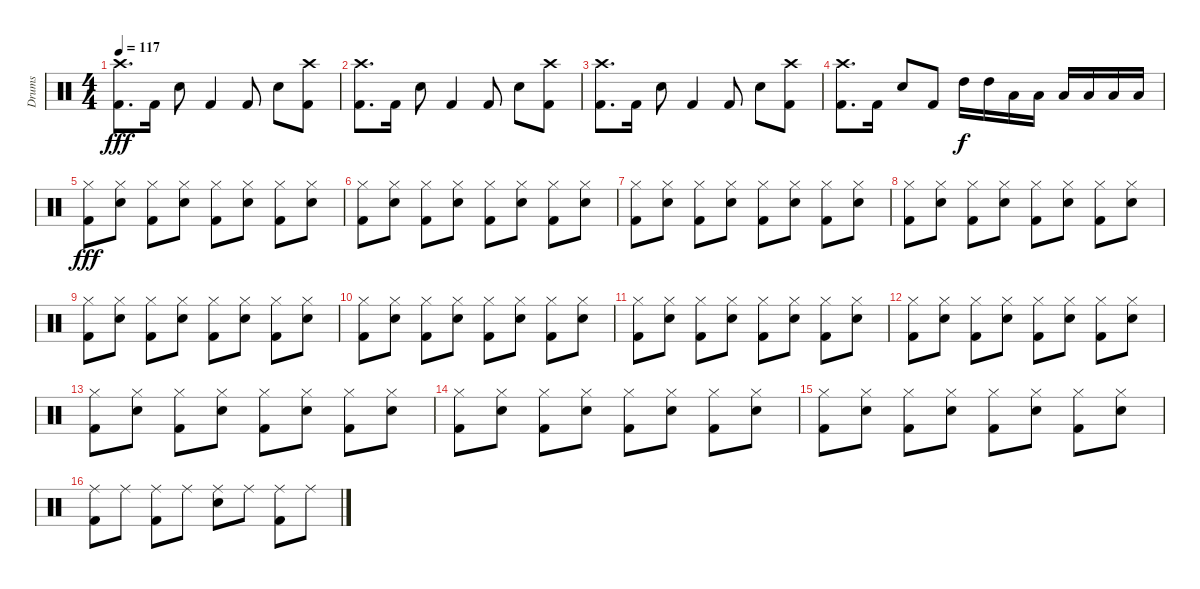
\track ("Drums" "Drums") {instrument percussion}
\staff {score}
\articulation defaults
\ts (4 4)
\tempo 117
\clef neutral
\ks c
("Crash high (hit)" "Kick (hit) 2").8{d dy fff} "Kick (hit) 2".16 "Snare (hit) 2".8 "Kick (hit) 2".4 "Kick (hit) 2".8 "Snare (hit) 2".8 ("Crash high (hit)" "Kick (hit) 2").8 |
("Crash high (hit)" "Kick (hit) 2").8{d} "Kick (hit) 2".16 "Snare (hit) 2".8 "Kick (hit) 2".4 "Kick (hit) 2".8 "Snare (hit) 2".8 ("Crash high (hit)" "Kick (hit) 2").8 |
("Crash high (hit)" "Kick (hit) 2").8{d} "Kick (hit) 2".16 "Snare (hit) 2".8 "Kick (hit) 2".4 "Kick (hit) 2".8 "Snare (hit) 2".8 ("Crash high (hit)" "Kick (hit) 2").8 |
("Crash high (hit)" "Kick (hit) 2").8{d} "Kick (hit) 2".16 "Snare (hit) 2".8 "Kick (hit) 2".8 "High Tom (hit)".16{dy f} "High Tom (hit)".16 "Low Tom (hit)".16 "Low Tom (hit)".16 "Low Floor Tom (hit)".16 "Low Floor Tom (hit)".16 "Low Floor Tom (hit)".16 "Low Floor Tom (hit)".16 |
("Hi-Hat (closed)" "Kick (hit) 2").8{dy fff} ("Hi-Hat (closed)" "Snare (hit) 2").8 ("Hi-Hat (closed)" "Kick (hit) 2").8 ("Hi-Hat (closed)" "Snare (hit) 2").8 ("Hi-Hat (closed)" "Kick (hit) 2").8 ("Hi-Hat (closed)" "Snare (hit) 2").8 ("Hi-Hat (closed)" "Kick (hit) 2").8 ("Hi-Hat (closed)" "Snare (hit) 2").8 |
("Hi-Hat (closed)" "Kick (hit) 2").8 ("Hi-Hat (closed)" "Snare (hit) 2").8 ("Hi-Hat (closed)" "Kick (hit) 2").8 ("Hi-Hat (closed)" "Snare (hit) 2").8 ("Hi-Hat (closed)" "Kick (hit) 2").8 ("Hi-Hat (closed)" "Snare (hit) 2").8 ("Hi-Hat (closed)" "Kick (hit) 2").8 ("Hi-Hat (closed)" "Snare (hit) 2").8 |
("Hi-Hat (closed)" "Kick (hit) 2").8 ("Hi-Hat (closed)" "Snare (hit) 2").8 ("Hi-Hat (closed)" "Kick (hit) 2").8 ("Hi-Hat (closed)" "Snare (hit) 2").8 ("Hi-Hat (closed)" "Kick (hit) 2").8 ("Hi-Hat (closed)" "Snare (hit) 2").8 ("Hi-Hat (closed)" "Kick (hit) 2").8 ("Hi-Hat (closed)" "Snare (hit) 2").8 |
("Hi-Hat (closed)" "Kick (hit) 2").8 ("Hi-Hat (closed)" "Snare (hit) 2").8 ("Hi-Hat (closed)" "Kick (hit) 2").8 ("Hi-Hat (closed)" "Snare (hit) 2").8 ("Hi-Hat (closed)" "Kick (hit) 2").8 ("Hi-Hat (closed)" "Snare (hit) 2").8 ("Hi-Hat (closed)" "Kick (hit) 2").8 ("Hi-Hat (closed)" "Snare (hit) 2").8 |
("Hi-Hat (closed)" "Kick (hit) 2").8 ("Hi-Hat (closed)" "Snare (hit) 2").8 ("Hi-Hat (closed)" "Kick (hit) 2").8 ("Hi-Hat (closed)" "Snare (hit) 2").8 ("Hi-Hat (closed)" "Kick (hit) 2").8 ("Hi-Hat (closed)" "Snare (hit) 2").8 ("Hi-Hat (closed)" "Kick (hit) 2").8 ("Hi-Hat (closed)" "Snare (hit) 2").8 |
("Hi-Hat (closed)" "Kick (hit) 2").8 ("Hi-Hat (closed)" "Snare (hit) 2").8 ("Hi-Hat (closed)" "Kick (hit) 2").8 ("Hi-Hat (closed)" "Snare (hit) 2").8 ("Hi-Hat (closed)" "Kick (hit) 2").8 ("Hi-Hat (closed)" "Snare (hit) 2").8 ("Hi-Hat (closed)" "Kick (hit) 2").8 ("Hi-Hat (closed)" "Snare (hit) 2").8 |
("Hi-Hat (closed)" "Kick (hit) 2").8 ("Hi-Hat (closed)" "Snare (hit) 2").8 ("Hi-Hat (closed)" "Kick (hit) 2").8 ("Hi-Hat (closed)" "Snare (hit) 2").8 ("Hi-Hat (closed)" "Kick (hit) 2").8 ("Hi-Hat (closed)" "Snare (hit) 2").8 ("Hi-Hat (closed)" "Kick (hit) 2").8 ("Hi-Hat (closed)" "Snare (hit) 2").8 |
("Hi-Hat (closed)" "Kick (hit) 2").8 ("Hi-Hat (closed)" "Snare (hit) 2").8 ("Hi-Hat (closed)" "Kick (hit) 2").8 ("Hi-Hat (closed)" "Snare (hit) 2").8 ("Hi-Hat (closed)" "Kick (hit) 2").8 ("Hi-Hat (closed)" "Snare (hit) 2").8 ("Hi-Hat (closed)" "Kick (hit) 2").8 ("Hi-Hat (closed)" "Snare (hit) 2").8 |
("Hi-Hat (closed)" "Kick (hit) 2").8 ("Hi-Hat (closed)" "Snare (hit) 2").8 ("Hi-Hat (closed)" "Kick (hit) 2").8 ("Hi-Hat (closed)" "Snare (hit) 2").8 ("Hi-Hat (closed)" "Kick (hit) 2").8 ("Hi-Hat (closed)" "Snare (hit) 2").8 ("Hi-Hat (closed)" "Kick (hit) 2").8 ("Hi-Hat (closed)" "Snare (hit) 2").8 |
("Hi-Hat (closed)" "Kick (hit) 2").8 ("Hi-Hat (closed)" "Snare (hit) 2").8 ("Hi-Hat (closed)" "Kick (hit) 2").8 ("Hi-Hat (closed)" "Snare (hit) 2").8 ("Hi-Hat (closed)" "Kick (hit) 2").8 ("Hi-Hat (closed)" "Snare (hit) 2").8 ("Hi-Hat (closed)" "Kick (hit) 2").8 ("Hi-Hat (closed)" "Snare (hit) 2").8 |
("Hi-Hat (closed)" "Kick (hit) 2").8 ("Hi-Hat (closed)" "Snare (hit) 2").8 ("Hi-Hat (closed)" "Kick (hit) 2").8 ("Hi-Hat (closed)" "Snare (hit) 2").8 ("Hi-Hat (closed)" "Kick (hit) 2").8 ("Hi-Hat (closed)" "Snare (hit) 2").8 ("Hi-Hat (closed)" "Kick (hit) 2").8 ("Hi-Hat (closed)" "Snare (hit) 2").8 |
("Ride (middle)" "Kick (hit) 2").8 "Ride (middle)".8 ("Ride (middle)" "Kick (hit) 2").8 "Ride (middle)".8 ("Ride (middle)" "Snare (hit) 2").8 "Ride (middle)".8 ("Ride (middle)" "Kick (hit) 2").8 "Ride (middle)".8
